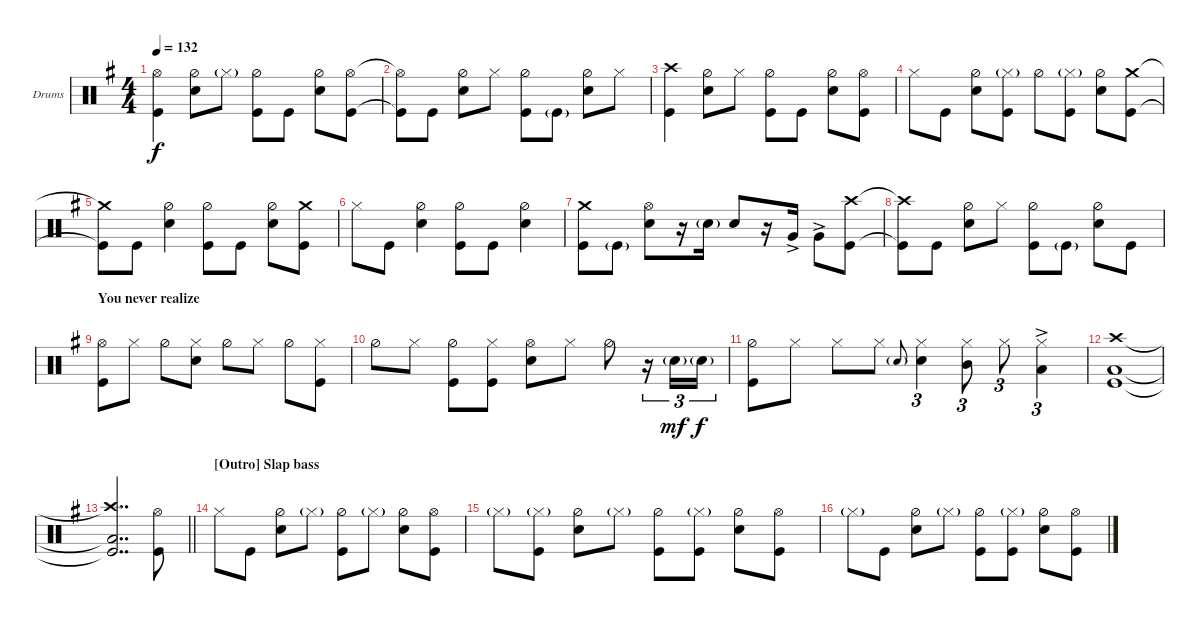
\bracketExtendMode groupsimilarinstruments
\firstSystemTrackNameOrientation horizontal
\otherSystemsTrackNameOrientation horizontal
\track ("Drumkit" "Drums") {instrument percussion}
\staff {score}
\articulation defaults
\ts (4 4)
\tempo 132
\clef neutral
\scale
0.333333
\ks g
("Kick (hit)" "Hi-Hat (open)").4{dy f} ("Hi-Hat (half)" "Snare (hit) 2").8 "Hi-Hat (closed)"{g}.8 ("Hi-Hat (half)" "Kick (hit)").8 "Kick (hit)".8 ("Hi-Hat (half)" "Snare (hit) 2").8 ("Kick (hit)" "Hi-Hat (open)").8 |
\scale
0.333333 ("Kick (hit)"{t} "Hi-Hat (open)"{t}).8 "Kick (hit)".8 ("Hi-Hat (half)" "Snare (hit) 2").8 "Hi-Hat (closed)".8 ("Hi-Hat (half)" "Kick (hit)").8 "Kick (hit)"{g}.8 ("Hi-Hat (half)" "Snare (hit) 2").8 "Hi-Hat (closed)".8 |
\scale
0.333333 ("Kick (hit)" "Crash high (hit)").4 ("Hi-Hat (half)" "Snare (hit) 2").8 "Hi-Hat (closed)".8 ("Hi-Hat (half)" "Kick (hit)").8 "Kick (hit)".8 ("Hi-Hat (half)" "Snare (hit) 2").8 ("Kick (hit)" "Hi-Hat (open)").8 |
\scale
0.333333 "Hi-Hat (closed)".8 "Kick (hit)".8 ("Snare (hit) 2" "Hi-Hat (half)").8 ("Kick (hit)" "Hi-Hat (closed)"{g}).8 "Hi-Hat (half)".8 ("Kick (hit)" "Hi-Hat (closed)"{g}).8 ("Snare (hit) 2" "Hi-Hat (half)").8 ("Kick (hit)" "Crash medium (hit)").8 |
\scale
0.333333 ("Kick (hit)"{t} "Crash medium (hit)"{t}).8 "Kick (hit)".8 ("Hi-Hat (half)" "Snare (hit) 2").4 ("Hi-Hat (half)" "Kick (hit)").8 "Kick (hit)".8 ("Hi-Hat (half)" "Snare (hit) 2").8 ("Kick (hit)" "Crash medium (hit)").8 |
\scale
0.333333 "Hi-Hat (closed)".8 "Kick (hit)".8 ("Hi-Hat (half)" "Snare (hit) 2").4 ("Hi-Hat (half)" "Kick (hit)").8 "Kick (hit)".8 ("Hi-Hat (half)" "Snare (hit) 2").4 |
\scale
0.333333 ("Crash medium (hit)" "Kick (hit)").8 "Kick (hit)"{g}.8 ("Snare (hit) 2" "Hi-Hat (open)").8 r.16 "Snare (hit) 2"{g}.16 "Snare (hit) 2".8 r.16 "Very Low Tom (hit)"{ac}.16 "Very Low Tom (hit)"{ac}.8 ("Kick (hit)" "Crash high (hit)").8 |
\scale
0.333333 ("Kick (hit)"{t} "Crash high (hit)"{t}).8 "Kick (hit)".8 ("Hi-Hat (half)" "Snare (hit) 2").8 "Hi-Hat (closed)".8 ("Hi-Hat (half)" "Kick (hit)").8 "Kick (hit)"{g}.8 ("Hi-Hat (half)" "Snare (hit) 2").8 "Kick (hit)".8 |
\section ("" "You never realize")
\scale
0.333333 ("Hi-Hat (open)" "Kick (hit)").8 "Hi-Hat (closed)".8 "Hi-Hat (half)".8 ("Hi-Hat (closed)" "Snare (hit) 2").8 "Hi-Hat (half)".8 "Hi-Hat (closed)".8 "Hi-Hat (half)".8 ("Hi-Hat (closed)" "Kick (hit)").8 |
\scale
0.333333 "Hi-Hat (half)".8 "Hi-Hat (closed)".8 ("Hi-Hat (half)" "Kick (hit)").8 ("Hi-Hat (closed)" "Kick (hit)").8 ("Hi-Hat (open)" "Snare (hit) 2").8 "Hi-Hat (closed)".8 "Hi-Hat (half)".8 r.16{tu (3 2)} "Snare (hit) 2"{g}.16{tu (3 2) dy mf} "Snare (hit) 2"{g}.16{tu (3 2) dy f} |
\scale
0.333333 ("Hi-Hat (half)" "Kick (hit)").8 "Hi-Hat (closed)".8 "Hi-Hat (closed)".8 "Hi-Hat (closed)".8 "Snare (hit) 2"{g}.8{gr onbeat} ("Hi-Hat (closed)" "Snare (hit) 2").4{tu (3 2)} ("Mid Tom (hit)" "Hi-Hat (closed)").8{tu (3 2)} "Hi-Hat (closed)".8{tu (3 2)} ("Low Tom (hit)"{ac} "Hi-Hat (closed)").4{tu (3 2)} |
\scale
0.333333 ("Crash high (hit)" "Kick (hit)" "Low Tom (hit)").1 |
\scale
0.333333
\barLineRight lightlight
("Crash high (hit)"{t} "Kick (hit)"{t} "Low Tom (hit)"{t}).2{dd} ("Kick (hit)" "Hi-Hat (open)").8 |
\section ("" "[Outro] Slap bass")
\scale
0.333333 "Hi-Hat (closed)".8 "Kick (hit)".8 ("Hi-Hat (half)" "Snare (hit) 2").8 "Hi-Hat (closed)"{g}.8 ("Hi-Hat (half)" "Kick (hit)").8 "Hi-Hat (closed)"{g}.8 ("Hi-Hat (half)" "Snare (hit) 2").8 ("Kick (hit)" "Hi-Hat (open)").8 |
\scale
0.333333 "Hi-Hat (closed)"{g}.8 ("Hi-Hat (closed)"{g} "Kick (hit)").8 ("Hi-Hat (half)" "Snare (hit) 2").8 "Hi-Hat (closed)"{g}.8 ("Hi-Hat (half)" "Kick (hit)").8 ("Hi-Hat (closed)"{g} "Kick (hit)").8 ("Hi-Hat (half)" "Snare (hit) 2").8 ("Kick (hit)" "Hi-Hat (open)").8 |
\scale
0.333333 "Hi-Hat (closed)"{g}.8 "Kick (hit)".8 ("Hi-Hat (half)" "Snare (hit) 2").8 "Hi-Hat (closed)"{g}.8 ("Hi-Hat (half)" "Kick (hit)").8 ("Hi-Hat (closed)"{g} "Kick (hit)").8 ("Hi-Hat (half)" "Snare (hit) 2").8 ("Kick (hit)" "Hi-Hat (open)").8
